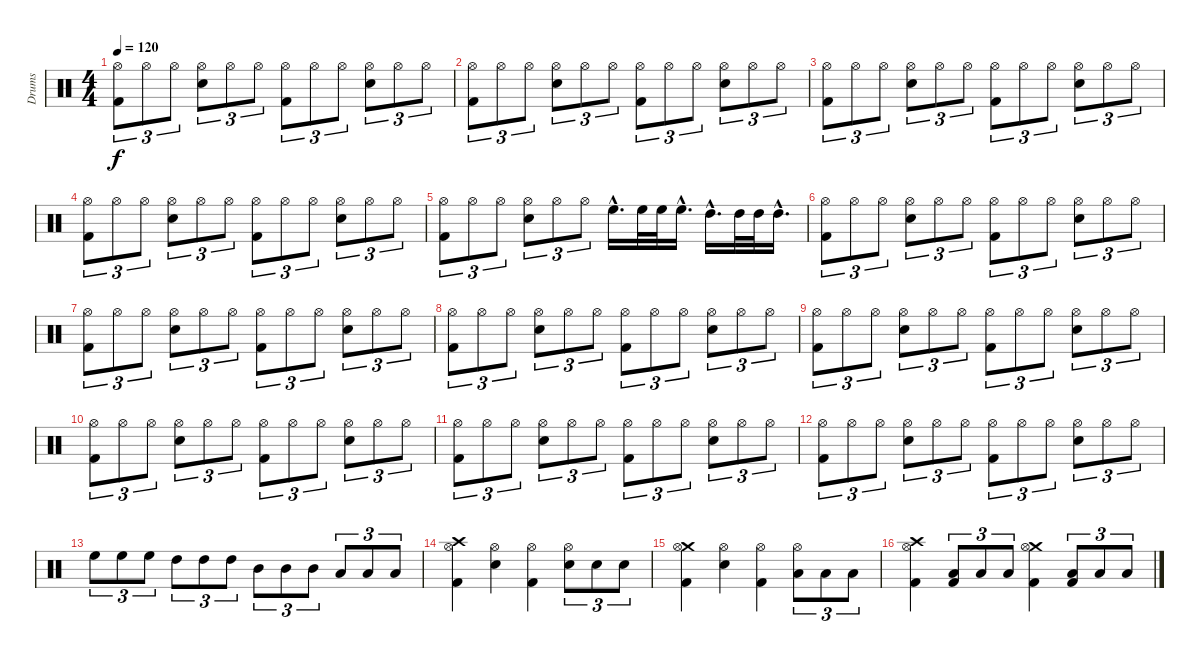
\track ("Drums" "Drums") {instrument percussion}
\staff {score}
\articulation defaults
\ts (4 4)
\tempo 120
\clef neutral
\ks c
("Hi-Hat (open)" "Kick (hit) 2").8{tu (3 2) dy f} "Hi-Hat (open)".8{tu (3 2)} "Hi-Hat (open)".8{tu (3 2)} ("Hi-Hat (open)" "Snare (hit) 2").8{tu (3 2)} "Hi-Hat (open)".8{tu (3 2)} "Hi-Hat (open)".8{tu (3 2)} ("Hi-Hat (open)" "Kick (hit) 2").8{tu (3 2)} "Hi-Hat (open)".8{tu (3 2)} "Hi-Hat (open)".8{tu (3 2)} ("Hi-Hat (open)" "Snare (hit) 2").8{tu (3 2)} "Hi-Hat (open)".8{tu (3 2)} "Hi-Hat (open)".8{tu (3 2)} |
("Hi-Hat (open)" "Kick (hit) 2").8{tu (3 2)} "Hi-Hat (open)".8{tu (3 2)} "Hi-Hat (open)".8{tu (3 2)} ("Hi-Hat (open)" "Snare (hit) 2").8{tu (3 2)} "Hi-Hat (open)".8{tu (3 2)} "Hi-Hat (open)".8{tu (3 2)} ("Hi-Hat (open)" "Kick (hit) 2").8{tu (3 2)} "Hi-Hat (open)".8{tu (3 2)} "Hi-Hat (open)".8{tu (3 2)} ("Hi-Hat (open)" "Snare (hit) 2").8{tu (3 2)} "Hi-Hat (open)".8{tu (3 2)} "Hi-Hat (open)".8{tu (3 2)} |
("Hi-Hat (open)" "Kick (hit) 2").8{tu (3 2)} "Hi-Hat (open)".8{tu (3 2)} "Hi-Hat (open)".8{tu (3 2)} ("Hi-Hat (open)" "Snare (hit) 2").8{tu (3 2)} "Hi-Hat (open)".8{tu (3 2)} "Hi-Hat (open)".8{tu (3 2)} ("Hi-Hat (open)" "Kick (hit) 2").8{tu (3 2)} "Hi-Hat (open)".8{tu (3 2)} "Hi-Hat (open)".8{tu (3 2)} ("Hi-Hat (open)" "Snare (hit) 2").8{tu (3 2)} "Hi-Hat (open)".8{tu (3 2)} "Hi-Hat (open)".8{tu (3 2)} |
("Hi-Hat (open)" "Kick (hit) 2").8{tu (3 2)} "Hi-Hat (open)".8{tu (3 2)} "Hi-Hat (open)".8{tu (3 2)} ("Hi-Hat (open)" "Snare (hit) 2").8{tu (3 2)} "Hi-Hat (open)".8{tu (3 2)} "Hi-Hat (open)".8{tu (3 2)} ("Hi-Hat (open)" "Kick (hit) 2").8{tu (3 2)} "Hi-Hat (open)".8{tu (3 2)} "Hi-Hat (open)".8{tu (3 2)} ("Hi-Hat (open)" "Snare (hit) 2").8{tu (3 2)} "Hi-Hat (open)".8{tu (3 2)} "Hi-Hat (open)".8{tu (3 2)} |
("Hi-Hat (open)" "Kick (hit) 2").8{tu (3 2)} "Hi-Hat (open)".8{tu (3 2)} "Hi-Hat (open)".8{tu (3 2)} ("Hi-Hat (open)" "Snare (hit) 2").8{tu (3 2)} "Hi-Hat (open)".8{tu (3 2)} "Hi-Hat (open)".8{tu (3 2)} "High Floor Tom (hit)"{hac}.16{d} "High Floor Tom (hit)".32 "High Floor Tom (hit)".32 "High Floor Tom (hit)"{hac}.16{d} "High Tom (hit)"{hac}.16{d} "High Tom (hit)".32 "High Tom (hit)".32 "High Tom (hit)"{hac}.16{d} |
("Hi-Hat (open)" "Kick (hit) 2").8{tu (3 2)} "Hi-Hat (open)".8{tu (3 2)} "Hi-Hat (open)".8{tu (3 2)} ("Hi-Hat (open)" "Snare (hit) 2").8{tu (3 2)} "Hi-Hat (open)".8{tu (3 2)} "Hi-Hat (open)".8{tu (3 2)} ("Hi-Hat (open)" "Kick (hit) 2").8{tu (3 2)} "Hi-Hat (open)".8{tu (3 2)} "Hi-Hat (open)".8{tu (3 2)} ("Hi-Hat (open)" "Snare (hit) 2").8{tu (3 2)} "Hi-Hat (open)".8{tu (3 2)} "Hi-Hat (open)".8{tu (3 2)} |
("Hi-Hat (open)" "Kick (hit) 2").8{tu (3 2)} "Hi-Hat (open)".8{tu (3 2)} "Hi-Hat (open)".8{tu (3 2)} ("Hi-Hat (open)" "Snare (hit) 2").8{tu (3 2)} "Hi-Hat (open)".8{tu (3 2)} "Hi-Hat (open)".8{tu (3 2)} ("Hi-Hat (open)" "Kick (hit) 2").8{tu (3 2)} "Hi-Hat (open)".8{tu (3 2)} "Hi-Hat (open)".8{tu (3 2)} ("Hi-Hat (open)" "Snare (hit) 2").8{tu (3 2)} "Hi-Hat (open)".8{tu (3 2)} "Hi-Hat (open)".8{tu (3 2)} |
("Hi-Hat (open)" "Kick (hit) 2").8{tu (3 2)} "Hi-Hat (open)".8{tu (3 2)} "Hi-Hat (open)".8{tu (3 2)} ("Hi-Hat (open)" "Snare (hit) 2").8{tu (3 2)} "Hi-Hat (open)".8{tu (3 2)} "Hi-Hat (open)".8{tu (3 2)} ("Hi-Hat (open)" "Kick (hit) 2").8{tu (3 2)} "Hi-Hat (open)".8{tu (3 2)} "Hi-Hat (open)".8{tu (3 2)} ("Hi-Hat (open)" "Snare (hit) 2").8{tu (3 2)} "Hi-Hat (open)".8{tu (3 2)} "Hi-Hat (open)".8{tu (3 2)} |
("Hi-Hat (open)" "Kick (hit) 2").8{tu (3 2)} "Hi-Hat (open)".8{tu (3 2)} "Hi-Hat (open)".8{tu (3 2)} ("Hi-Hat (open)" "Snare (hit) 2").8{tu (3 2)} "Hi-Hat (open)".8{tu (3 2)} "Hi-Hat (open)".8{tu (3 2)} ("Hi-Hat (open)" "Kick (hit) 2").8{tu (3 2)} "Hi-Hat (open)".8{tu (3 2)} "Hi-Hat (open)".8{tu (3 2)} ("Hi-Hat (open)" "Snare (hit) 2").8{tu (3 2)} "Hi-Hat (open)".8{tu (3 2)} "Hi-Hat (open)".8{tu (3 2)} |
("Hi-Hat (open)" "Kick (hit) 2").8{tu (3 2)} "Hi-Hat (open)".8{tu (3 2)} "Hi-Hat (open)".8{tu (3 2)} ("Hi-Hat (open)" "Snare (hit) 2").8{tu (3 2)} "Hi-Hat (open)".8{tu (3 2)} "Hi-Hat (open)".8{tu (3 2)} ("Hi-Hat (open)" "Kick (hit) 2").8{tu (3 2)} "Hi-Hat (open)".8{tu (3 2)} "Hi-Hat (open)".8{tu (3 2)} ("Hi-Hat (open)" "Snare (hit) 2").8{tu (3 2)} "Hi-Hat (open)".8{tu (3 2)} "Hi-Hat (open)".8{tu (3 2)} |
("Hi-Hat (open)" "Kick (hit) 2").8{tu (3 2)} "Hi-Hat (open)".8{tu (3 2)} "Hi-Hat (open)".8{tu (3 2)} ("Hi-Hat (open)" "Snare (hit) 2").8{tu (3 2)} "Hi-Hat (open)".8{tu (3 2)} "Hi-Hat (open)".8{tu (3 2)} ("Hi-Hat (open)" "Kick (hit) 2").8{tu (3 2)} "Hi-Hat (open)".8{tu (3 2)} "Hi-Hat (open)".8{tu (3 2)} ("Hi-Hat (open)" "Snare (hit) 2").8{tu (3 2)} "Hi-Hat (open)".8{tu (3 2)} "Hi-Hat (open)".8{tu (3 2)} |
("Hi-Hat (open)" "Kick (hit) 2").8{tu (3 2)} "Hi-Hat (open)".8{tu (3 2)} "Hi-Hat (open)".8{tu (3 2)} ("Hi-Hat (open)" "Snare (hit) 2").8{tu (3 2)} "Hi-Hat (open)".8{tu (3 2)} "Hi-Hat (open)".8{tu (3 2)} ("Hi-Hat (open)" "Kick (hit) 2").8{tu (3 2)} "Hi-Hat (open)".8{tu (3 2)} "Hi-Hat (open)".8{tu (3 2)} ("Hi-Hat (open)" "Snare (hit) 2").8{tu (3 2)} "Hi-Hat (open)".8{tu (3 2)} "Hi-Hat (open)".8{tu (3 2)} |
"High Floor Tom (hit)".8{tu (3 2)} "High Floor Tom (hit)".8{tu (3 2)} "High Floor Tom (hit)".8{tu (3 2)} "High Tom (hit)".8{tu (3 2)} "High Tom (hit)".8{tu (3 2)} "High Tom (hit)".8{tu (3 2)} "Mid Tom (hit)".8{tu (3 2)} "Mid Tom (hit)".8{tu (3 2)} "Mid Tom (hit)".8{tu (3 2)} "Low Tom (hit)".8{tu (3 2)} "Low Tom (hit)".8{tu (3 2)} "Low Tom (hit)".8{tu (3 2)} |
("Crash high (hit)" "Hi-Hat (open)" "Kick (hit) 2").4 ("Hi-Hat (open)" "Snare (hit) 2").4 ("Hi-Hat (open)" "Kick (hit) 2").4 ("Hi-Hat (open)" "Snare (hit) 2").8{tu (3 2)} "Snare (hit) 2".8{tu (3 2)} "Snare (hit) 2".8{tu (3 2)} |
("Crash medium (hit)" "Hi-Hat (open)" "Kick (hit) 2").4 ("Hi-Hat (open)" "Snare (hit) 2").4 ("Hi-Hat (open)" "Kick (hit) 2").4 ("Hi-Hat (open)" "Low Floor Tom (hit)").8{tu (3 2)} "Low Floor Tom (hit)".8{tu (3 2)} "Low Floor Tom (hit)".8{tu (3 2)} |
("Crash high (hit)" "Hi-Hat (open)" "Kick (hit) 2").4 ("Low Tom (hit)" "Kick (hit) 2").8{tu (3 2)} "Low Tom (hit)".8{tu (3 2)} "Low Tom (hit)".8{tu (3 2)} ("Crash medium (hit)" "Hi-Hat (open)" "Kick (hit) 2").4 ("Low Floor Tom (hit)" "Kick (hit) 2").8{tu (3 2)} "Low Floor Tom (hit)".8{tu (3 2)} "Low Floor Tom (hit)".8{tu (3 2)}
